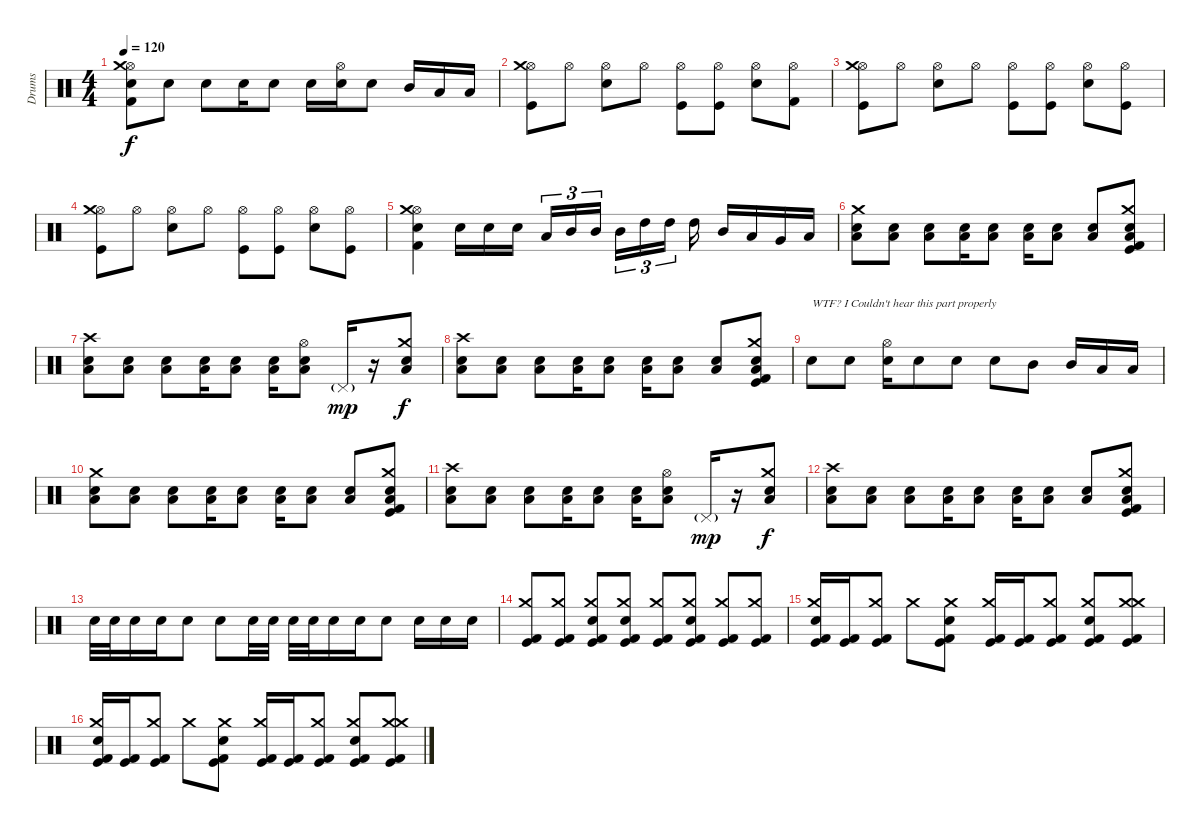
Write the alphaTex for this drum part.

\track ("Drums" "Drums") {instrument percussion}
\staff {score}
\articulation defaults
\ts (4 4)
\tempo 120
\clef neutral
\ks c
("Hi-Hat (open)" "Snare (hit) 2" "Kick (hit) 2" "Crash medium (hit)").8{dy f} "Snare (hit) 2".8 "Snare (hit) 2".8 "Snare (hit) 2".16 "Snare (hit) 2".8 "Snare (hit) 2".16 ("Hi-Hat (open)" "Snare (hit) 2").16 "Snare (hit) 2".8 "Mid Tom (hit)".16 "Low Tom (hit)".16 "Low Floor Tom (hit)".16 |
("Hi-Hat (open)" "Kick (hit)" "Crash medium (hit)").8 "Hi-Hat (open)".8 ("Hi-Hat (open)" "Snare (hit) 2").8 "Hi-Hat (open)".8 ("Hi-Hat (open)" "Kick (hit)").8 ("Hi-Hat (open)" "Kick (hit)").8 ("Hi-Hat (open)" "Snare (hit) 2").8 ("Hi-Hat (open)" "Kick (hit) 2").8 |
("Hi-Hat (open)" "Kick (hit)" "Crash medium (hit)").8 "Hi-Hat (open)".8 ("Hi-Hat (open)" "Snare (hit) 2").8 "Hi-Hat (open)".8 ("Hi-Hat (open)" "Kick (hit)").8 ("Hi-Hat (open)" "Kick (hit)").8 ("Hi-Hat (open)" "Snare (hit) 2").8 ("Hi-Hat (open)" "Kick (hit)").8 |
("Hi-Hat (open)" "Kick (hit)" "Crash medium (hit)").8 "Hi-Hat (open)".8 ("Hi-Hat (open)" "Snare (hit) 2").8 "Hi-Hat (open)".8 ("Hi-Hat (open)" "Kick (hit)").8 ("Hi-Hat (open)" "Kick (hit)").8 ("Hi-Hat (open)" "Snare (hit) 2").8 ("Hi-Hat (open)" "Kick (hit)").8 |
("Hi-Hat (open)" "Snare (hit) 2" "Kick (hit) 2" "Crash medium (hit)").4 "Snare (hit) 2".16 "Snare (hit) 2".16 "Snare (hit) 2".16 "Low Tom (hit)".16{tu (3 2)} "Mid Tom (hit)".16{tu (3 2)} "Mid Tom (hit)".16{tu (3 2)} "Mid Tom (hit)".16{tu (3 2)} "High Tom (hit)".16{tu (3 2)} "High Tom (hit)".16{tu (3 2)} "High Tom (hit)".16 "Mid Tom (hit)".16 "Low Tom (hit)".16 "Very Low Tom (hit)".16 "Low Floor Tom (hit)".16 |
("Crash medium (hit)" "Low Floor Tom (hit)" "Snare (hit) 2").8 ("Low Floor Tom (hit)" "Snare (hit) 2").8 ("Low Floor Tom (hit)" "Snare (hit) 2").8 ("Low Floor Tom (hit)" "Snare (hit) 2").16 ("Low Floor Tom (hit)" "Snare (hit) 2").8 ("Low Floor Tom (hit)" "Snare (hit) 2").16 ("Low Floor Tom (hit)" "Snare (hit) 2").8 ("Low Floor Tom (hit)" "Snare (hit) 2").8 ("Crash medium (hit)" "Low Floor Tom (hit)" "Snare (hit) 2" "Kick (hit)" "Kick (hit) 2").8 |
("Crash high (hit)" "Low Floor Tom (hit)" "Snare (hit) 2").8 ("Low Floor Tom (hit)" "Snare (hit) 2").8 ("Low Floor Tom (hit)" "Snare (hit) 2").8 ("Low Floor Tom (hit)" "Snare (hit) 2").16 ("Low Floor Tom (hit)" "Snare (hit) 2").8 ("Low Floor Tom (hit)" "Snare (hit) 2").16 ("Hi-Hat (open)" "Low Floor Tom (hit)" "Snare (hit) 2").8 "Pedal Hi-Hat (hit)"{g}.16{dy mp} r.16 ("Crash medium (hit)" "Low Floor Tom (hit)" "Snare (hit) 2").8{dy f} |
("Crash high (hit)" "Low Floor Tom (hit)" "Snare (hit) 2").8 ("Low Floor Tom (hit)" "Snare (hit) 2").8 ("Low Floor Tom (hit)" "Snare (hit) 2").8 ("Low Floor Tom (hit)" "Snare (hit) 2").16 ("Low Floor Tom (hit)" "Snare (hit) 2").8 ("Low Floor Tom (hit)" "Snare (hit) 2").16 ("Low Floor Tom (hit)" "Snare (hit) 2").8 ("Low Floor Tom (hit)" "Snare (hit) 2").8 ("Crash medium (hit)" "Low Floor Tom (hit)" "Snare (hit) 2" "Kick (hit)" "Kick (hit) 2").8 |
"Snare (hit) 2".8{txt "WTF? I Couldn't hear this part properly"} "Snare (hit) 2".8 ("Hi-Hat (open)" "Snare (hit) 2").16 "Snare (hit) 2".8 "Snare (hit) 2".8 "Snare (hit) 2".8 "Mid Tom (hit)".8 "Mid Tom (hit)".16 "Low Tom (hit)".16 "Low Floor Tom (hit)".16 |
("Crash medium (hit)" "Low Floor Tom (hit)" "Snare (hit) 2").8 ("Low Floor Tom (hit)" "Snare (hit) 2").8 ("Low Floor Tom (hit)" "Snare (hit) 2").8 ("Low Floor Tom (hit)" "Snare (hit) 2").16 ("Low Floor Tom (hit)" "Snare (hit) 2").8 ("Low Floor Tom (hit)" "Snare (hit) 2").16 ("Low Floor Tom (hit)" "Snare (hit) 2").8 ("Low Floor Tom (hit)" "Snare (hit) 2").8 ("Crash medium (hit)" "Low Floor Tom (hit)" "Snare (hit) 2" "Kick (hit)" "Kick (hit) 2").8 |
("Crash high (hit)" "Low Floor Tom (hit)" "Snare (hit) 2").8 ("Low Floor Tom (hit)" "Snare (hit) 2").8 ("Low Floor Tom (hit)" "Snare (hit) 2").8 ("Low Floor Tom (hit)" "Snare (hit) 2").16 ("Low Floor Tom (hit)" "Snare (hit) 2").8 ("Low Floor Tom (hit)" "Snare (hit) 2").16 ("Hi-Hat (open)" "Low Floor Tom (hit)" "Snare (hit) 2").8 "Pedal Hi-Hat (hit)"{g}.16{dy mp} r.16 ("Crash medium (hit)" "Low Floor Tom (hit)" "Snare (hit) 2").8{dy f} |
("Crash high (hit)" "Low Floor Tom (hit)" "Snare (hit) 2").8 ("Low Floor Tom (hit)" "Snare (hit) 2").8 ("Low Floor Tom (hit)" "Snare (hit) 2").8 ("Low Floor Tom (hit)" "Snare (hit) 2").16 ("Low Floor Tom (hit)" "Snare (hit) 2").8 ("Low Floor Tom (hit)" "Snare (hit) 2").16 ("Low Floor Tom (hit)" "Snare (hit) 2").8 ("Low Floor Tom (hit)" "Snare (hit) 2").8 ("Crash medium (hit)" "Low Floor Tom (hit)" "Snare (hit) 2" "Kick (hit)" "Kick (hit) 2").8 |
"Snare (hit) 2".32 "Snare (hit) 2".32 "Snare (hit) 2".16 "Snare (hit) 2".16 "Snare (hit) 2".8 "Snare (hit) 2".8 "Snare (hit) 2".32 "Snare (hit) 2".32 "Snare (hit) 2".32 "Snare (hit) 2".32 "Snare (hit) 2".16 "Snare (hit) 2".16 "Snare (hit) 2".8 "Snare (hit) 2".16 "Snare (hit) 2".16 "Snare (hit) 2".16 |
("Crash medium (hit)" "Kick (hit)" "Kick (hit) 2").8 ("Crash medium (hit)" "Kick (hit)" "Kick (hit) 2").8 ("Crash medium (hit)" "Snare (hit) 2" "Kick (hit)" "Kick (hit) 2").8 ("Crash medium (hit)" "Snare (hit) 2" "Kick (hit)" "Kick (hit) 2").8 ("Crash medium (hit)" "Kick (hit)" "Kick (hit) 2").8 ("Crash medium (hit)" "Snare (hit) 2" "Kick (hit)" "Kick (hit) 2").8 ("Crash medium (hit)" "Kick (hit)" "Kick (hit) 2").8 ("Crash medium (hit)" "Kick (hit)" "Kick (hit) 2").8 |
("Crash medium (hit)" "Snare (hit) 2" "Kick (hit)" "Kick (hit) 2").16 ("Kick (hit)" "Kick (hit) 2").16 ("Crash medium (hit)" "Kick (hit)" "Kick (hit) 2").8 "Crash medium (hit)".8 ("Crash medium (hit)" "Snare (hit) 2" "Kick (hit)" "Kick (hit) 2").8 ("Crash medium (hit)" "Kick (hit)" "Kick (hit) 2").16 ("Kick (hit)" "Kick (hit) 2").16 ("Crash medium (hit)" "Kick (hit)" "Kick (hit) 2").8 ("Crash medium (hit)" "Snare (hit) 2" "Kick (hit)" "Kick (hit) 2").8 ("Crash medium (hit)" "Crash medium (hit)" "Kick (hit)" "Kick (hit) 2").8 |
("Crash medium (hit)" "Snare (hit) 2" "Kick (hit)" "Kick (hit) 2").16 ("Kick (hit)" "Kick (hit) 2").16 ("Crash medium (hit)" "Kick (hit)" "Kick (hit) 2").8 "Crash medium (hit)".8 ("Crash medium (hit)" "Snare (hit) 2" "Kick (hit)" "Kick (hit) 2").8 ("Crash medium (hit)" "Kick (hit)" "Kick (hit) 2").16 ("Kick (hit)" "Kick (hit) 2").16 ("Crash medium (hit)" "Kick (hit)" "Kick (hit) 2").8 ("Crash medium (hit)" "Snare (hit) 2" "Kick (hit)" "Kick (hit) 2").8 ("Crash medium (hit)" "Crash medium (hit)" "Kick (hit)" "Kick (hit) 2").8
